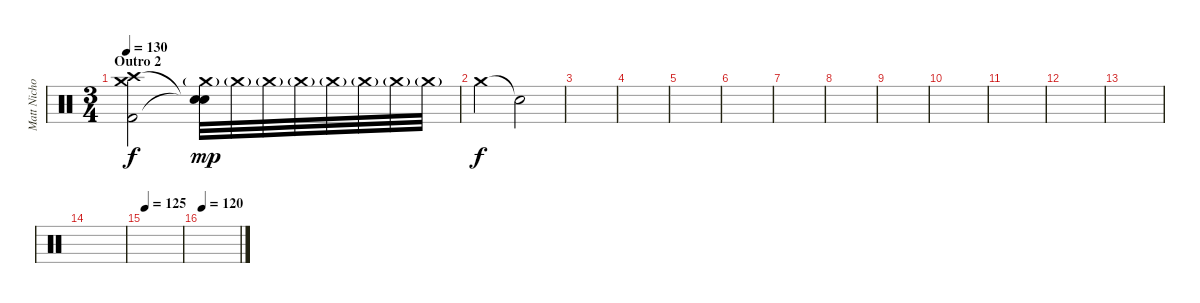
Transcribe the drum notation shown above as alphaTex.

\track ("Matt Nicholls" "Matt Nicho") {instrument percussion}
\staff {score}
\articulation defaults
\ts (3 4)
\section ("" "Outro 2")
\tempo 120
\tempo 130
\clef neutral
\ks c
("Crash high (hit)" "Crash medium (hit)" "Kick (hit) 2").2{dy f} ("Snare (hit)"{t} "Crash medium (hit)"{g} "Snare (hit)"{t}).32{dy mp} "Crash medium (hit)"{g}.32 "Crash medium (hit)"{g}.32 "Crash medium (hit)"{g}.32 "Crash medium (hit)"{g}.32 "Crash medium (hit)"{g}.32 "Crash medium (hit)"{g}.32 "Crash medium (hit)"{g}.32 |
"Crash medium (hit)".4{dy f} "Snare (hit)"{t}.2 |
|
|
|
|
|
|
|
|
|
|
|
|
\tempo 125
|
\tempo 120
